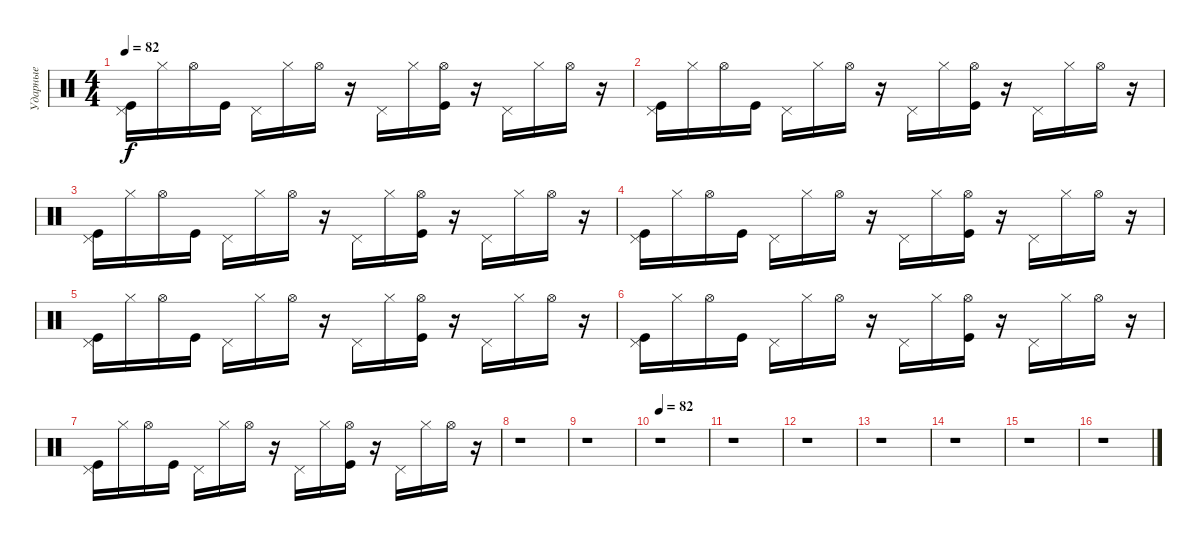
\track ("Ударные" "Ударные") {instrument percussion}
\staff {score}
\articulation defaults
\ts (4 4)
\tempo 82
\clef neutral
\ks c
("Kick (hit)" "Pedal Hi-Hat (hit)").16{dy f} "Hi-Hat (closed)".16 "Hi-Hat (open)".16 "Kick (hit)".16 "Pedal Hi-Hat (hit)".16 "Hi-Hat (closed)".16 "Hi-Hat (open)".16 r.16 "Pedal Hi-Hat (hit)".16 "Hi-Hat (closed)".16 ("Hi-Hat (open)" "Kick (hit)").16 r.16 "Pedal Hi-Hat (hit)".16 "Hi-Hat (closed)".16 "Hi-Hat (open)".16 r.16 |
("Kick (hit)" "Pedal Hi-Hat (hit)").16 "Hi-Hat (closed)".16 "Hi-Hat (open)".16 "Kick (hit)".16 "Pedal Hi-Hat (hit)".16 "Hi-Hat (closed)".16 "Hi-Hat (open)".16 r.16 "Pedal Hi-Hat (hit)".16 "Hi-Hat (closed)".16 ("Hi-Hat (open)" "Kick (hit)").16 r.16 "Pedal Hi-Hat (hit)".16 "Hi-Hat (closed)".16 "Hi-Hat (open)".16 r.16 |
("Kick (hit)" "Pedal Hi-Hat (hit)").16 "Hi-Hat (closed)".16 "Hi-Hat (open)".16 "Kick (hit)".16 "Pedal Hi-Hat (hit)".16 "Hi-Hat (closed)".16 "Hi-Hat (open)".16 r.16 "Pedal Hi-Hat (hit)".16 "Hi-Hat (closed)".16 ("Hi-Hat (open)" "Kick (hit)").16 r.16 "Pedal Hi-Hat (hit)".16 "Hi-Hat (closed)".16 "Hi-Hat (open)".16 r.16 |
("Kick (hit)" "Pedal Hi-Hat (hit)").16 "Hi-Hat (closed)".16 "Hi-Hat (open)".16 "Kick (hit)".16 "Pedal Hi-Hat (hit)".16 "Hi-Hat (closed)".16 "Hi-Hat (open)".16 r.16 "Pedal Hi-Hat (hit)".16 "Hi-Hat (closed)".16 ("Hi-Hat (open)" "Kick (hit)").16 r.16 "Pedal Hi-Hat (hit)".16 "Hi-Hat (closed)".16 "Hi-Hat (open)".16 r.16 |
("Kick (hit)" "Pedal Hi-Hat (hit)").16 "Hi-Hat (closed)".16 "Hi-Hat (open)".16 "Kick (hit)".16 "Pedal Hi-Hat (hit)".16 "Hi-Hat (closed)".16 "Hi-Hat (open)".16 r.16 "Pedal Hi-Hat (hit)".16 "Hi-Hat (closed)".16 ("Hi-Hat (open)" "Kick (hit)").16 r.16 "Pedal Hi-Hat (hit)".16 "Hi-Hat (closed)".16 "Hi-Hat (open)".16 r.16 |
("Kick (hit)" "Pedal Hi-Hat (hit)").16 "Hi-Hat (closed)".16 "Hi-Hat (open)".16 "Kick (hit)".16 "Pedal Hi-Hat (hit)".16 "Hi-Hat (closed)".16 "Hi-Hat (open)".16 r.16 "Pedal Hi-Hat (hit)".16 "Hi-Hat (closed)".16 ("Hi-Hat (open)" "Kick (hit)").16 r.16 "Pedal Hi-Hat (hit)".16 "Hi-Hat (closed)".16 "Hi-Hat (open)".16 r.16 |
("Kick (hit)" "Pedal Hi-Hat (hit)").16 "Hi-Hat (closed)".16 "Hi-Hat (open)".16 "Kick (hit)".16 "Pedal Hi-Hat (hit)".16 "Hi-Hat (closed)".16 "Hi-Hat (open)".16 r.16 "Pedal Hi-Hat (hit)".16 "Hi-Hat (closed)".16 ("Hi-Hat (open)" "Kick (hit)").16 r.16 "Pedal Hi-Hat (hit)".16 "Hi-Hat (closed)".16 "Hi-Hat (open)".16 r.16 |
r.1 |
r.1 |
\tempo 82
r.1 |
r.1 |
r.1 |
r.1 |
r.1 |
r.1 |
r.1
